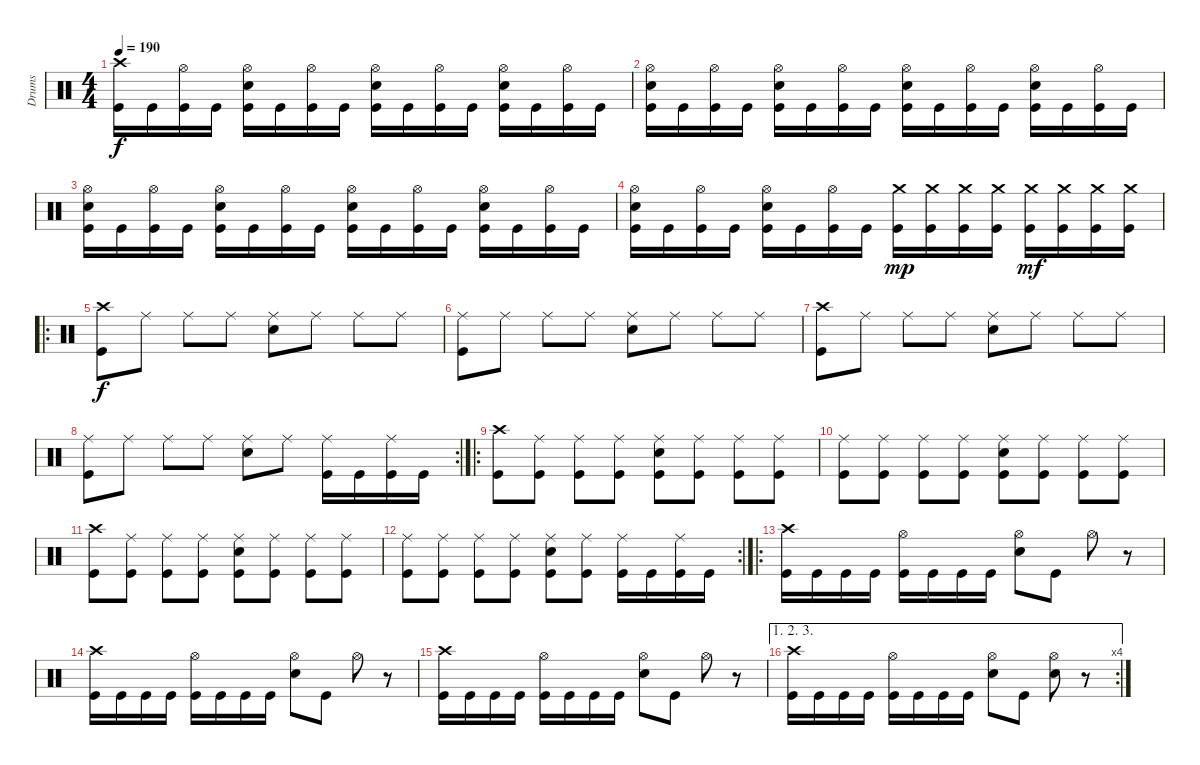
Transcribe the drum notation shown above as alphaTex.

\track ("Drums" "Drums") {instrument percussion}
\staff {score}
\articulation defaults
\ts (4 4)
\tempo 190
\clef neutral
\ks c
("Crash high (hit)" "Kick (hit)").16{dy f} "Kick (hit)".16 ("Hi-Hat (open)" "Kick (hit)").16 "Kick (hit)".16 ("Hi-Hat (open)" "Electric Snare (hit)" "Kick (hit)").16 "Kick (hit)".16 ("Hi-Hat (open)" "Kick (hit)").16 "Kick (hit)".16 ("Hi-Hat (open)" "Electric Snare (hit)" "Kick (hit)").16 "Kick (hit)".16 ("Hi-Hat (open)" "Kick (hit)").16 "Kick (hit)".16 ("Hi-Hat (open)" "Electric Snare (hit)" "Kick (hit)").16 "Kick (hit)".16 ("Hi-Hat (open)" "Kick (hit)").16 "Kick (hit)".16 |
("Hi-Hat (open)" "Electric Snare (hit)" "Kick (hit)").16 "Kick (hit)".16 ("Hi-Hat (open)" "Kick (hit)").16 "Kick (hit)".16 ("Hi-Hat (open)" "Electric Snare (hit)" "Kick (hit)").16 "Kick (hit)".16 ("Hi-Hat (open)" "Kick (hit)").16 "Kick (hit)".16 ("Hi-Hat (open)" "Electric Snare (hit)" "Kick (hit)").16 "Kick (hit)".16 ("Hi-Hat (open)" "Kick (hit)").16 "Kick (hit)".16 ("Hi-Hat (open)" "Electric Snare (hit)" "Kick (hit)").16 "Kick (hit)".16 ("Hi-Hat (open)" "Kick (hit)").16 "Kick (hit)".16 |
("Hi-Hat (open)" "Electric Snare (hit)" "Kick (hit)").16 "Kick (hit)".16 ("Hi-Hat (open)" "Kick (hit)").16 "Kick (hit)".16 ("Hi-Hat (open)" "Electric Snare (hit)" "Kick (hit)").16 "Kick (hit)".16 ("Hi-Hat (open)" "Kick (hit)").16 "Kick (hit)".16 ("Hi-Hat (open)" "Electric Snare (hit)" "Kick (hit)").16 "Kick (hit)".16 ("Hi-Hat (open)" "Kick (hit)").16 "Kick (hit)".16 ("Hi-Hat (open)" "Electric Snare (hit)" "Kick (hit)").16 "Kick (hit)".16 ("Hi-Hat (open)" "Kick (hit)").16 "Kick (hit)".16 |
("Hi-Hat (open)" "Electric Snare (hit)" "Kick (hit)").16 "Kick (hit)".16 ("Hi-Hat (open)" "Kick (hit)").16 "Kick (hit)".16 ("Hi-Hat (open)" "Electric Snare (hit)" "Kick (hit)").16 "Kick (hit)".16 ("Hi-Hat (open)" "Kick (hit)").16 "Kick (hit)".16 ("Crash medium (hit)" "Kick (hit)").16{dy mp} ("Crash medium (hit)" "Kick (hit)").16 ("Crash medium (hit)" "Kick (hit)").16 ("Crash medium (hit)" "Kick (hit)").16 ("Crash medium (hit)" "Kick (hit)").16{dy mf} ("Crash medium (hit)" "Kick (hit)").16 ("Crash medium (hit)" "Kick (hit)").16 ("Crash medium (hit)" "Kick (hit)").16 |
\ro
("Crash high (hit)" "Kick (hit)").8{dy f} "Ride (middle)".8 "Ride (middle)".8 "Ride (middle)".8 ("Ride (middle)" "Electric Snare (hit)").8 "Ride (middle)".8 "Ride (middle)".8 "Ride (middle)".8 |
("Ride (middle)" "Kick (hit)").8 "Ride (middle)".8 "Ride (middle)".8 "Ride (middle)".8 ("Ride (middle)" "Electric Snare (hit)").8 "Ride (middle)".8 "Ride (middle)".8 "Ride (middle)".8 |
("Crash high (hit)" "Kick (hit)").8 "Ride (middle)".8 "Ride (middle)".8 "Ride (middle)".8 ("Ride (middle)" "Electric Snare (hit)").8 "Ride (middle)".8 "Ride (middle)".8 "Ride (middle)".8 |
\rc 2
("Ride (middle)" "Kick (hit)").8 "Ride (middle)".8 "Ride (middle)".8 "Ride (middle)".8 ("Ride (middle)" "Electric Snare (hit)").8 "Ride (middle)".8 ("Ride (middle)" "Kick (hit)").16 "Kick (hit)".16 ("Ride (middle)" "Kick (hit)").16 "Kick (hit)".16 |
\ro
("Crash high (hit)" "Kick (hit)").8 ("Ride (middle)" "Kick (hit)").8 ("Ride (middle)" "Kick (hit)").8 ("Ride (middle)" "Kick (hit)").8 ("Ride (middle)" "Electric Snare (hit)" "Kick (hit)").8 ("Ride (middle)" "Kick (hit)").8 ("Ride (middle)" "Kick (hit)").8 ("Ride (middle)" "Kick (hit)").8 |
("Ride (middle)" "Kick (hit)").8 ("Ride (middle)" "Kick (hit)").8 ("Ride (middle)" "Kick (hit)").8 ("Ride (middle)" "Kick (hit)").8 ("Ride (middle)" "Electric Snare (hit)" "Kick (hit)").8 ("Ride (middle)" "Kick (hit)").8 ("Ride (middle)" "Kick (hit)").8 ("Ride (middle)" "Kick (hit)").8 |
("Crash high (hit)" "Kick (hit)").8 ("Ride (middle)" "Kick (hit)").8 ("Ride (middle)" "Kick (hit)").8 ("Ride (middle)" "Kick (hit)").8 ("Ride (middle)" "Electric Snare (hit)" "Kick (hit)").8 ("Ride (middle)" "Kick (hit)").8 ("Ride (middle)" "Kick (hit)").8 ("Ride (middle)" "Kick (hit)").8 |
\rc 2
("Ride (middle)" "Kick (hit)").8 ("Ride (middle)" "Kick (hit)").8 ("Ride (middle)" "Kick (hit)").8 ("Ride (middle)" "Kick (hit)").8 ("Ride (middle)" "Electric Snare (hit)" "Kick (hit)").8 ("Ride (middle)" "Kick (hit)").8 ("Ride (middle)" "Kick (hit)").16 "Kick (hit)".16 ("Ride (middle)" "Kick (hit)").16 "Kick (hit)".16 |
\ro
("Crash high (hit)" "Kick (hit)").16 "Kick (hit)".16 "Kick (hit)".16 "Kick (hit)".16 ("Hi-Hat (open)" "Kick (hit)").16 "Kick (hit)".16 "Kick (hit)".16 "Kick (hit)".16 ("Hi-Hat (open)" "Electric Snare (hit)").8 "Kick (hit)".8 "Hi-Hat (open)".8 r.8 |
("Crash high (hit)" "Kick (hit)").16 "Kick (hit)".16 "Kick (hit)".16 "Kick (hit)".16 ("Hi-Hat (open)" "Kick (hit)").16 "Kick (hit)".16 "Kick (hit)".16 "Kick (hit)".16 ("Hi-Hat (open)" "Electric Snare (hit)").8 "Kick (hit)".8 "Hi-Hat (open)".8 r.8 |
("Crash high (hit)" "Kick (hit)").16 "Kick (hit)".16 "Kick (hit)".16 "Kick (hit)".16 ("Hi-Hat (open)" "Kick (hit)").16 "Kick (hit)".16 "Kick (hit)".16 "Kick (hit)".16 ("Hi-Hat (open)" "Electric Snare (hit)").8 "Kick (hit)".8 "Hi-Hat (open)".8 r.8 |
\ae (1 2 3)
\rc 4
("Crash high (hit)" "Kick (hit)").16 "Kick (hit)".16 "Kick (hit)".16 "Kick (hit)".16 ("Hi-Hat (open)" "Kick (hit)").16 "Kick (hit)".16 "Kick (hit)".16 "Kick (hit)".16 ("Hi-Hat (open)" "Electric Snare (hit)").8 "Kick (hit)".8 ("Hi-Hat (open)" "Electric Snare (hit)").8 r.8
